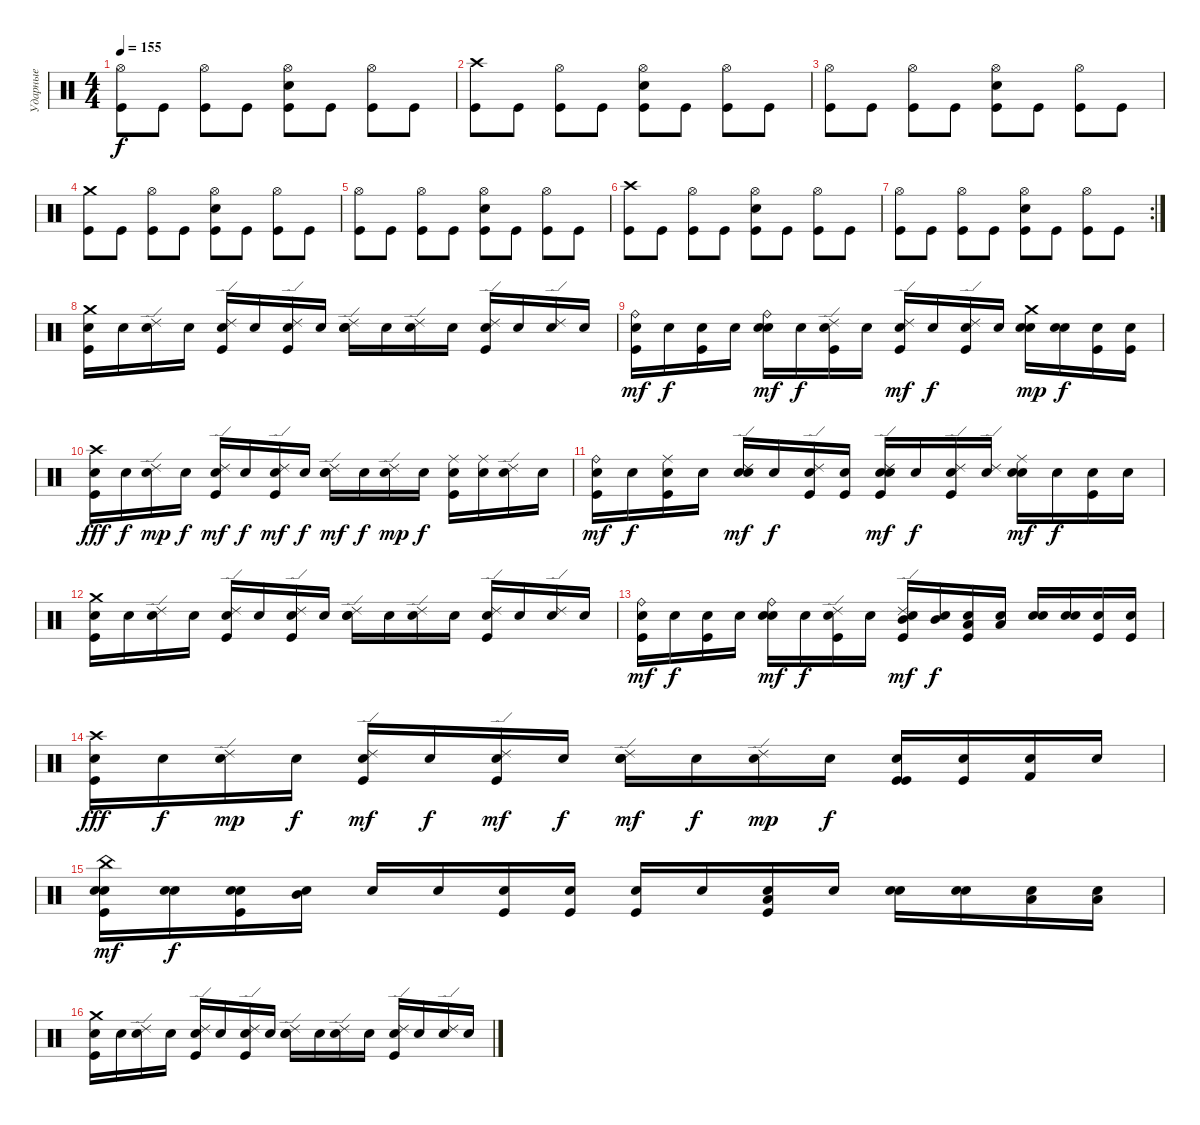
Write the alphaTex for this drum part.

\track ("Ударные" "Ударные") {instrument percussion}
\staff {score}
\articulation defaults
\ts (4 4)
\tempo 155
\clef neutral
\ks c
("Hi-Hat (open)" "Kick (hit)").8{dy f} "Kick (hit)".8 ("Hi-Hat (open)" "Kick (hit)").8 "Kick (hit)".8 ("Snare (hit) 2" "Hi-Hat (open)" "Kick (hit)").8 "Kick (hit)".8 ("Hi-Hat (open)" "Kick (hit)").8 "Kick (hit)".8 |
("Crash high (hit)" "Kick (hit)").8 "Kick (hit)".8 ("Hi-Hat (open)" "Kick (hit)").8 "Kick (hit)".8 ("Snare (hit) 2" "Hi-Hat (open)" "Kick (hit)").8 "Kick (hit)".8 ("Hi-Hat (open)" "Kick (hit)").8 "Kick (hit)".8 |
("Hi-Hat (open)" "Kick (hit)").8 "Kick (hit)".8 ("Hi-Hat (open)" "Kick (hit)").8 "Kick (hit)".8 ("Snare (hit) 2" "Hi-Hat (open)" "Kick (hit)").8 "Kick (hit)".8 ("Hi-Hat (open)" "Kick (hit)").8 "Kick (hit)".8 |
("Crash medium (hit)" "Kick (hit)").8 "Kick (hit)".8 ("Hi-Hat (open)" "Kick (hit)").8 "Kick (hit)".8 ("Snare (hit) 2" "Hi-Hat (open)" "Kick (hit)").8 "Kick (hit)".8 ("Hi-Hat (open)" "Kick (hit)").8 "Kick (hit)".8 |
("Hi-Hat (open)" "Kick (hit)").8 "Kick (hit)".8 ("Hi-Hat (open)" "Kick (hit)").8 "Kick (hit)".8 ("Snare (hit) 2" "Hi-Hat (open)" "Kick (hit)").8 "Kick (hit)".8 ("Hi-Hat (open)" "Kick (hit)").8 "Kick (hit)".8 |
("Crash high (hit)" "Kick (hit)").8 "Kick (hit)".8 ("Hi-Hat (open)" "Kick (hit)").8 "Kick (hit)".8 ("Snare (hit) 2" "Hi-Hat (open)" "Kick (hit)").8 "Kick (hit)".8 ("Hi-Hat (open)" "Kick (hit)").8 "Kick (hit)".8 |
\rc 2
("Hi-Hat (open)" "Kick (hit)").8 "Kick (hit)".8 ("Hi-Hat (open)" "Kick (hit)").8 "Kick (hit)".8 ("Snare (hit) 2" "Hi-Hat (open)" "Kick (hit)").8 "Kick (hit)".8 ("Hi-Hat (open)" "Kick (hit)").8 "Kick (hit)".8 |
("Crash medium (hit)" "Kick (hit)" "Snare (hit)").16 "Snare (hit)".16 ("Ride (edge) 2" "Snare (hit)").16 "Snare (hit)".16 ("Ride (edge) 2" "Kick (hit)" "Snare (hit)").16 "Snare (hit)".16 ("Ride (edge) 2" "Kick (hit)" "Snare (hit)").16 "Snare (hit)".16 ("Snare (hit) 2" "Ride (edge) 2" "Snare (hit)").16 "Snare (hit)".16 ("Ride (edge) 2" "Snare (hit)").16 "Snare (hit)".16 ("Kick (hit)" "Ride (edge) 2" "Snare (hit)").16 "Snare (hit)".16 ("Ride (edge) 2" "Snare (hit)").16 "Snare (hit)".16 |
("Ride (bell)" "Kick (hit)" "Snare (hit)").16{dy mf} "Snare (hit)".16{dy f} ("Kick (hit)" "Snare (hit)").16 "Snare (hit)".16 ("Snare (hit) 2" "Ride (bell)" "Snare (hit)").16{dy mf} "Snare (hit)".16{dy f} ("Ride (edge) 2" "Kick (hit)" "Snare (hit)").16 "Snare (hit)".16 ("Ride (edge) 2" "Kick (hit)" "Snare (hit)").16{dy mf} "Snare (hit)".16{dy f} ("Ride (edge) 2" "Kick (hit)" "Snare (hit)").16 "Snare (hit)".16 ("Snare (hit) 2" "Crash medium (hit)" "Snare (hit)").16{dy mp} ("Snare (hit) 2" "Snare (hit)").16{dy f} ("Kick (hit)" "Snare (hit)").16 ("Kick (hit)" "Snare (hit)").16 |
("Crash high (hit)" "Kick (hit)" "Snare (hit)").16{dy fff} "Snare (hit)".16{dy f} ("Ride (edge) 2" "Snare (hit)").16{dy mp} "Snare (hit)".16{dy f} ("Ride (edge) 2" "Kick (hit)" "Snare (hit)").16{dy mf} "Snare (hit)".16{dy f} ("Ride (edge) 2" "Kick (hit)" "Snare (hit)").16{dy mf} "Snare (hit)".16{dy f} ("Snare (hit) 2" "Ride (edge) 2" "Snare (hit)").16{dy mf} "Snare (hit)".16{dy f} ("Ride (edge) 2" "Snare (hit)").16{dy mp} "Snare (hit)".16{dy f} ("Ride (middle)" "Kick (hit)" "Snare (hit)").16 ("Ride (middle)" "Snare (hit)").16 ("Ride (edge) 2" "Snare (hit)").16 "Snare (hit)".16 |
("Ride (bell)" "Kick (hit)" "Snare (hit)").16{dy mf} "Snare (hit)".16{dy f} ("Ride (middle)" "Kick (hit)" "Snare (hit)").16 "Snare (hit)".16 ("Snare (hit) 2" "Ride (edge) 2" "Snare (hit)").16{dy mf} "Snare (hit)".16{dy f} ("Ride (edge) 2" "Kick (hit)" "Snare (hit)").16 ("Kick (hit)" "Snare (hit)").16 ("Snare (hit) 2" "Ride (edge) 2" "Kick (hit)" "Snare (hit)").16{dy mf} "Snare (hit)".16{dy f} ("Ride (edge) 2" "Kick (hit)" "Snare (hit)").16 ("Ride (edge) 2" "Snare (hit)").16 ("Snare (hit) 2" "Ride (middle)" "Snare (hit)").16{dy mf} "Snare (hit)".16{dy f} ("Kick (hit)" "Snare (hit)").16 "Snare (hit)".16 |
("Crash medium (hit)" "Kick (hit)" "Snare (hit)").16 "Snare (hit)".16 ("Ride (edge) 2" "Snare (hit)").16 "Snare (hit)".16 ("Ride (edge) 2" "Kick (hit)" "Snare (hit)").16 "Snare (hit)".16 ("Ride (edge) 2" "Kick (hit)" "Snare (hit)").16 "Snare (hit)".16 ("Snare (hit) 2" "Ride (edge) 2" "Snare (hit)").16 "Snare (hit)".16 ("Ride (edge) 2" "Snare (hit)").16 "Snare (hit)".16 ("Kick (hit)" "Ride (edge) 2" "Snare (hit)").16 "Snare (hit)".16 ("Ride (edge) 2" "Snare (hit)").16 "Snare (hit)".16 |
("Ride (bell)" "Kick (hit)" "Snare (hit)").16{dy mf} "Snare (hit)".16{dy f} ("Kick (hit)" "Snare (hit)").16 "Snare (hit)".16 ("Snare (hit) 2" "Ride (bell)" "Snare (hit)").16{dy mf} "Snare (hit)".16{dy f} ("Ride (edge) 2" "Kick (hit)" "Snare (hit)").16 "Snare (hit)".16 ("Mid Tom (hit)" "Ride (edge) 2" "Kick (hit)" "Snare (hit)").16{dy mf} ("Mid Tom (hit)" "Snare (hit)").16{dy f} ("Low Tom (hit)" "Kick (hit)" "Snare (hit)").16 ("Low Tom (hit)" "Snare (hit)").16 ("Snare (hit) 2" "Snare (hit)").16 ("Snare (hit) 2" "Snare (hit)").16 ("Kick (hit)" "Snare (hit)").16 ("Kick (hit)" "Snare (hit)").16 |
("Crash high (hit)" "Kick (hit)" "Snare (hit)").16{dy fff} "Snare (hit)".16{dy f} ("Ride (edge) 2" "Snare (hit)").16{dy mp} "Snare (hit)".16{dy f} ("Ride (edge) 2" "Kick (hit)" "Snare (hit)").16{dy mf} "Snare (hit)".16{dy f} ("Ride (edge) 2" "Kick (hit)" "Snare (hit)").16{dy mf} "Snare (hit)".16{dy f} ("Snare (hit) 2" "Ride (edge) 2" "Snare (hit)").16{dy mf} "Snare (hit)".16{dy f} ("Ride (edge) 2" "Snare (hit)").16{dy mp} "Snare (hit)".16{dy f} ("Kick (hit)" "Kick (hit)" "Snare (hit)").16 ("Kick (hit)" "Snare (hit)").16 ("Kick (hit) 2" "Snare (hit)").16 "Snare (hit)".16 |
("Snare (hit) 2" "China (hit)" "Kick (hit)" "Snare (hit)").16{dy mf} ("Snare (hit) 2" "Snare (hit)").16{dy f} ("Snare (hit) 2" "Kick (hit)" "Snare (hit)").16 ("Mid Tom (hit)" "Snare (hit)").16 "Snare (hit)".16 "Snare (hit)".16 ("Kick (hit)" "Snare (hit)").16 ("Kick (hit)" "Snare (hit)").16 ("Kick (hit)" "Snare (hit)").16 "Snare (hit)".16 ("Low Tom (hit)" "Kick (hit)" "Snare (hit)").16 "Snare (hit)".16 ("Snare (hit) 2" "Snare (hit)").16 ("Snare (hit) 2" "Snare (hit)").16 ("Low Tom (hit)" "Snare (hit)").16 ("Low Tom (hit)" "Snare (hit)").16 |
("Crash medium (hit)" "Kick (hit)" "Snare (hit)").16 "Snare (hit)".16 ("Ride (edge) 2" "Snare (hit)").16 "Snare (hit)".16 ("Ride (edge) 2" "Kick (hit)" "Snare (hit)").16 "Snare (hit)".16 ("Ride (edge) 2" "Kick (hit)" "Snare (hit)").16 "Snare (hit)".16 ("Snare (hit) 2" "Ride (edge) 2" "Snare (hit)").16 "Snare (hit)".16 ("Ride (edge) 2" "Snare (hit)").16 "Snare (hit)".16 ("Kick (hit)" "Ride (edge) 2" "Snare (hit)").16 "Snare (hit)".16 ("Ride (edge) 2" "Snare (hit)").16 "Snare (hit)".16
